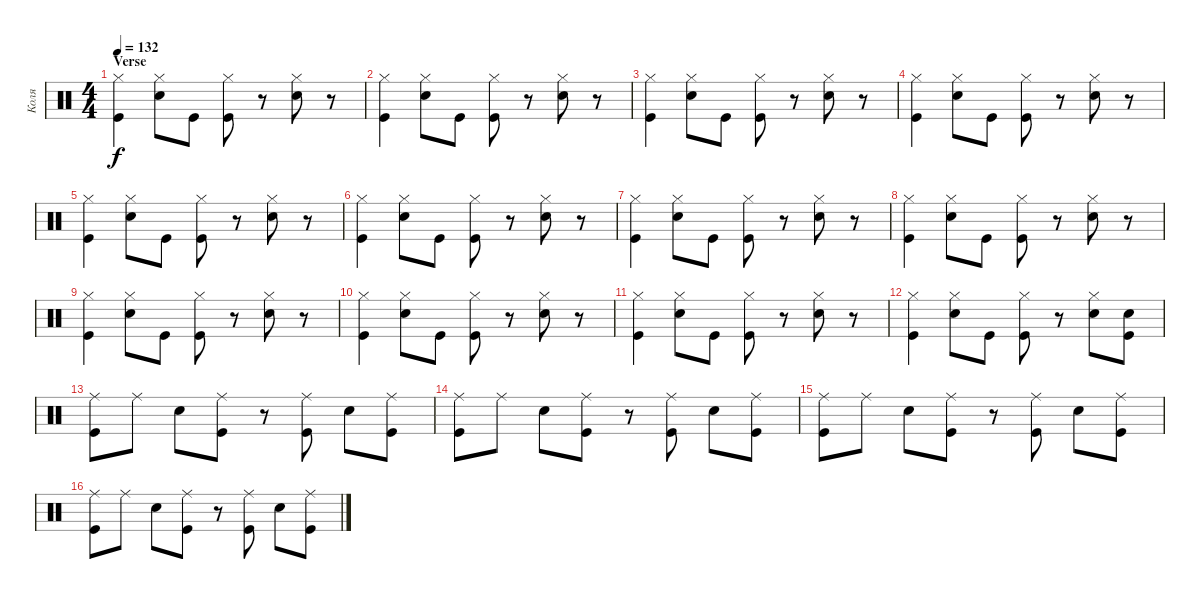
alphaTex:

\track ("Коля" "Коля") {instrument percussion}
\staff {score}
\articulation defaults
\ts (4 4)
\section ("" "Verse ")
\tempo 132
\clef neutral
\ks c
("Hi-Hat (closed)" "Kick (hit)").4{dy f} ("Hi-Hat (closed)" "Snare (hit) 2").8 "Kick (hit)".8 ("Hi-Hat (closed)" "Kick (hit)").8 r.8 ("Hi-Hat (closed)" "Snare (hit) 2").8 r.8 |
("Hi-Hat (closed)" "Kick (hit)").4 ("Hi-Hat (closed)" "Snare (hit) 2").8 "Kick (hit)".8 ("Hi-Hat (closed)" "Kick (hit)").8 r.8 ("Hi-Hat (closed)" "Snare (hit) 2").8 r.8 |
("Hi-Hat (closed)" "Kick (hit)").4 ("Hi-Hat (closed)" "Snare (hit) 2").8 "Kick (hit)".8 ("Hi-Hat (closed)" "Kick (hit)").8 r.8 ("Hi-Hat (closed)" "Snare (hit) 2").8 r.8 |
("Hi-Hat (closed)" "Kick (hit)").4 ("Hi-Hat (closed)" "Snare (hit) 2").8 "Kick (hit)".8 ("Hi-Hat (closed)" "Kick (hit)").8 r.8 ("Hi-Hat (closed)" "Snare (hit) 2").8 r.8 |
("Hi-Hat (closed)" "Kick (hit)").4 ("Hi-Hat (closed)" "Snare (hit) 2").8 "Kick (hit)".8 ("Hi-Hat (closed)" "Kick (hit)").8 r.8 ("Hi-Hat (closed)" "Snare (hit) 2").8 r.8 |
("Hi-Hat (closed)" "Kick (hit)").4 ("Hi-Hat (closed)" "Snare (hit) 2").8 "Kick (hit)".8 ("Hi-Hat (closed)" "Kick (hit)").8 r.8 ("Hi-Hat (closed)" "Snare (hit) 2").8 r.8 |
("Hi-Hat (closed)" "Kick (hit)").4 ("Hi-Hat (closed)" "Snare (hit) 2").8 "Kick (hit)".8 ("Hi-Hat (closed)" "Kick (hit)").8 r.8 ("Hi-Hat (closed)" "Snare (hit) 2").8 r.8 |
("Hi-Hat (closed)" "Kick (hit)").4 ("Hi-Hat (closed)" "Snare (hit) 2").8 "Kick (hit)".8 ("Hi-Hat (closed)" "Kick (hit)").8 r.8 ("Hi-Hat (closed)" "Snare (hit) 2").8 r.8 |
("Hi-Hat (closed)" "Kick (hit)").4 ("Hi-Hat (closed)" "Snare (hit) 2").8 "Kick (hit)".8 ("Hi-Hat (closed)" "Kick (hit)").8 r.8 ("Hi-Hat (closed)" "Snare (hit) 2").8 r.8 |
("Hi-Hat (closed)" "Kick (hit)").4 ("Hi-Hat (closed)" "Snare (hit) 2").8 "Kick (hit)".8 ("Hi-Hat (closed)" "Kick (hit)").8 r.8 ("Hi-Hat (closed)" "Snare (hit) 2").8 r.8 |
("Hi-Hat (closed)" "Kick (hit)").4 ("Hi-Hat (closed)" "Snare (hit) 2").8 "Kick (hit)".8 ("Hi-Hat (closed)" "Kick (hit)").8 r.8 ("Hi-Hat (closed)" "Snare (hit) 2").8 r.8 |
("Hi-Hat (closed)" "Kick (hit)").4 ("Hi-Hat (closed)" "Snare (hit) 2").8 "Kick (hit)".8 ("Hi-Hat (closed)" "Kick (hit)").8 r.8 ("Hi-Hat (closed)" "Snare (hit) 2").8 ("Snare (hit) 2" "Kick (hit)").8 |
("Ride (middle)" "Kick (hit)").8 "Ride (middle)".8 "Snare (hit) 2".8 ("Ride (middle)" "Kick (hit)").8 r.8 ("Ride (middle)" "Kick (hit)").8 "Snare (hit) 2".8 ("Ride (middle)" "Kick (hit)").8 |
("Ride (middle)" "Kick (hit)").8 "Ride (middle)".8 "Snare (hit) 2".8 ("Ride (middle)" "Kick (hit)").8 r.8 ("Ride (middle)" "Kick (hit)").8 "Snare (hit) 2".8 ("Ride (middle)" "Kick (hit)").8 |
("Ride (middle)" "Kick (hit)").8 "Ride (middle)".8 "Snare (hit) 2".8 ("Ride (middle)" "Kick (hit)").8 r.8 ("Ride (middle)" "Kick (hit)").8 "Snare (hit) 2".8 ("Ride (middle)" "Kick (hit)").8 |
("Ride (middle)" "Kick (hit)").8 "Ride (middle)".8 "Snare (hit) 2".8 ("Ride (middle)" "Kick (hit)").8 r.8 ("Ride (middle)" "Kick (hit)").8 "Snare (hit) 2".8 ("Ride (middle)" "Kick (hit)").8
